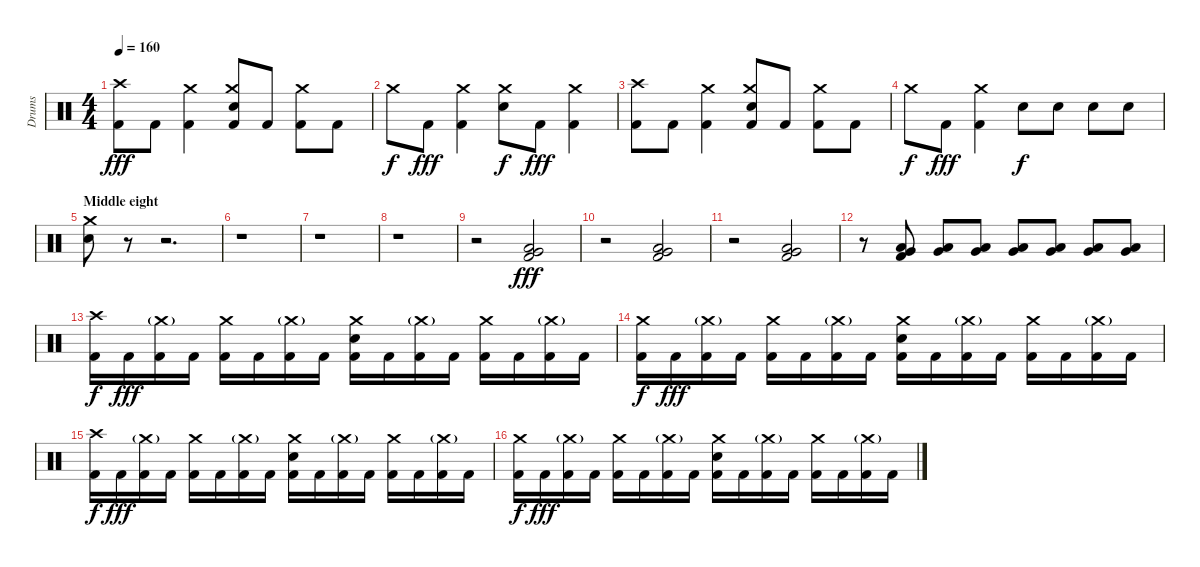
\track ("Drums" "Drums") {instrument percussion}
\staff {score}
\articulation defaults
\ts (4 4)
\tempo 160
\clef neutral
\ks c
("Crash high (hit)" "Kick (hit) 2").8{dy fff} "Kick (hit) 2".8 ("Crash medium (hit)" "Kick (hit) 2").4 ("Crash medium (hit)" "Snare (hit) 2" "Kick (hit) 2").8 "Kick (hit) 2".8 ("Crash medium (hit)" "Kick (hit) 2").8 "Kick (hit) 2".8 |
"Crash medium (hit)".8{dy f} "Kick (hit) 2".8{dy fff} ("Crash medium (hit)" "Kick (hit) 2").4 ("Crash medium (hit)" "Snare (hit) 2").8{dy f} "Kick (hit) 2".8{dy fff} ("Crash medium (hit)" "Kick (hit) 2").4 |
("Crash high (hit)" "Kick (hit) 2").8 "Kick (hit) 2".8 ("Crash medium (hit)" "Kick (hit) 2").4 ("Crash medium (hit)" "Snare (hit) 2" "Kick (hit) 2").8 "Kick (hit) 2".8 ("Crash medium (hit)" "Kick (hit) 2").8 "Kick (hit) 2".8 |
"Crash medium (hit)".8{dy f} "Kick (hit) 2".8{dy fff} ("Crash medium (hit)" "Kick (hit) 2").4 "Snare (hit) 2".8{dy f} "Snare (hit) 2".8 "Snare (hit) 2".8 "Snare (hit) 2".8 |
\section ("" "Middle eight")
("Crash medium (hit)" "Snare (hit) 2").8 r.8 r.2{d} |
r.1 |
r.1 |
r.1 |
r.2 ("Very Low Tom (hit)" "Low Floor Tom (hit)" "Kick (hit) 2").2{dy fff} |
r.2 ("Very Low Tom (hit)" "Low Floor Tom (hit)" "Kick (hit) 2").2 |
r.2 ("Very Low Tom (hit)" "Low Floor Tom (hit)" "Kick (hit) 2").2 |
r.8 ("Very Low Tom (hit)" "Low Floor Tom (hit)" "Kick (hit) 2").8 ("Very Low Tom (hit)" "Low Floor Tom (hit)").8 ("Very Low Tom (hit)" "Low Floor Tom (hit)").8 ("Very Low Tom (hit)" "Low Floor Tom (hit)").8 ("Very Low Tom (hit)" "Low Floor Tom (hit)").8 ("Very Low Tom (hit)" "Low Floor Tom (hit)").8 ("Very Low Tom (hit)" "Low Floor Tom (hit)").8 |
("Crash high (hit)" "Kick (hit) 2").16{dy f} "Kick (hit) 2".16{dy fff} ("Crash medium (hit)"{g} "Kick (hit) 2").16 "Kick (hit) 2".16 ("Crash medium (hit)" "Kick (hit) 2").16 "Kick (hit) 2".16 ("Crash medium (hit)"{g} "Kick (hit) 2").16 "Kick (hit) 2".16 ("Crash medium (hit)" "Snare (hit) 2" "Kick (hit) 2").16 "Kick (hit) 2".16 ("Crash medium (hit)"{g} "Kick (hit) 2").16 "Kick (hit) 2".16 ("Crash medium (hit)" "Kick (hit) 2").16 "Kick (hit) 2".16 ("Crash medium (hit)"{g} "Kick (hit) 2").16 "Kick (hit) 2".16 |
("Crash medium (hit)" "Kick (hit) 2").16{dy f} "Kick (hit) 2".16{dy fff} ("Crash medium (hit)"{g} "Kick (hit) 2").16 "Kick (hit) 2".16 ("Crash medium (hit)" "Kick (hit) 2").16 "Kick (hit) 2".16 ("Crash medium (hit)"{g} "Kick (hit) 2").16 "Kick (hit) 2".16 ("Crash medium (hit)" "Snare (hit) 2" "Kick (hit) 2").16 "Kick (hit) 2".16 ("Crash medium (hit)"{g} "Kick (hit) 2").16 "Kick (hit) 2".16 ("Crash medium (hit)" "Kick (hit) 2").16 "Kick (hit) 2".16 ("Crash medium (hit)"{g} "Kick (hit) 2").16 "Kick (hit) 2".16 |
("Crash high (hit)" "Kick (hit) 2").16{dy f} "Kick (hit) 2".16{dy fff} ("Crash medium (hit)"{g} "Kick (hit) 2").16 "Kick (hit) 2".16 ("Crash medium (hit)" "Kick (hit) 2").16 "Kick (hit) 2".16 ("Crash medium (hit)"{g} "Kick (hit) 2").16 "Kick (hit) 2".16 ("Crash medium (hit)" "Snare (hit) 2" "Kick (hit) 2").16 "Kick (hit) 2".16 ("Crash medium (hit)"{g} "Kick (hit) 2").16 "Kick (hit) 2".16 ("Crash medium (hit)" "Kick (hit) 2").16 "Kick (hit) 2".16 ("Crash medium (hit)"{g} "Kick (hit) 2").16 "Kick (hit) 2".16 |
("Crash medium (hit)" "Kick (hit) 2").16{dy f} "Kick (hit) 2".16{dy fff} ("Crash medium (hit)"{g} "Kick (hit) 2").16 "Kick (hit) 2".16 ("Crash medium (hit)" "Kick (hit) 2").16 "Kick (hit) 2".16 ("Crash medium (hit)"{g} "Kick (hit) 2").16 "Kick (hit) 2".16 ("Crash medium (hit)" "Snare (hit) 2" "Kick (hit) 2").16 "Kick (hit) 2".16 ("Crash medium (hit)"{g} "Kick (hit) 2").16 "Kick (hit) 2".16 ("Crash medium (hit)" "Kick (hit) 2").16 "Kick (hit) 2".16 ("Crash medium (hit)"{g} "Kick (hit) 2").16 "Kick (hit) 2".16
